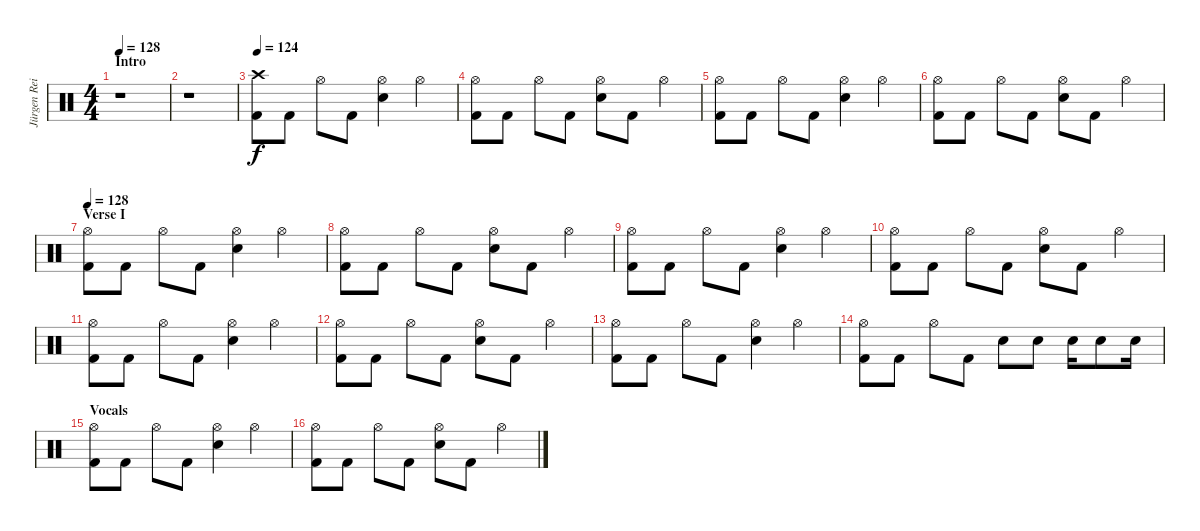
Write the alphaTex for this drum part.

\track ("Jürgen Reil [drums]" "Jürgen Rei") {instrument percussion}
\staff {score}
\articulation defaults
\ts (4 4)
\section ("" "Intro")
\tempo 128
\tempo 155
\tempo 128
\clef neutral
\ks c
r.1{dy f} |
r.1 |
\tempo 124
("Crash high (hit)" "Kick (hit) 2").8 "Kick (hit) 2".8 "Hi-Hat (open)".8 "Kick (hit) 2".8 ("Hi-Hat (open)" "Electric Snare (hit)").4 "Hi-Hat (open)".4 |
("Hi-Hat (open)" "Kick (hit) 2").8 "Kick (hit) 2".8 "Hi-Hat (open)".8 "Kick (hit) 2".8 ("Hi-Hat (open)" "Electric Snare (hit)").8 "Kick (hit) 2".8 "Hi-Hat (open)".4 |
("Hi-Hat (open)" "Kick (hit) 2").8 "Kick (hit) 2".8 "Hi-Hat (open)".8 "Kick (hit) 2".8 ("Hi-Hat (open)" "Electric Snare (hit)").4 "Hi-Hat (open)".4 |
("Hi-Hat (open)" "Kick (hit) 2").8 "Kick (hit) 2".8 "Hi-Hat (open)".8 "Kick (hit) 2".8 ("Hi-Hat (open)" "Electric Snare (hit)").8 "Kick (hit) 2".8 "Hi-Hat (open)".4 |
\section ("" "Verse I")
\tempo 128
("Hi-Hat (open)" "Kick (hit) 2").8 "Kick (hit) 2".8 "Hi-Hat (open)".8 "Kick (hit) 2".8 ("Hi-Hat (open)" "Electric Snare (hit)").4 "Hi-Hat (open)".4 |
("Hi-Hat (open)" "Kick (hit) 2").8 "Kick (hit) 2".8 "Hi-Hat (open)".8 "Kick (hit) 2".8 ("Hi-Hat (open)" "Electric Snare (hit)").8 "Kick (hit) 2".8 "Hi-Hat (open)".4 |
("Hi-Hat (open)" "Kick (hit) 2").8 "Kick (hit) 2".8 "Hi-Hat (open)".8 "Kick (hit) 2".8 ("Hi-Hat (open)" "Electric Snare (hit)").4 "Hi-Hat (open)".4 |
("Hi-Hat (open)" "Kick (hit) 2").8 "Kick (hit) 2".8 "Hi-Hat (open)".8 "Kick (hit) 2".8 ("Hi-Hat (open)" "Electric Snare (hit)").8 "Kick (hit) 2".8 "Hi-Hat (open)".4 |
("Hi-Hat (open)" "Kick (hit) 2").8 "Kick (hit) 2".8 "Hi-Hat (open)".8 "Kick (hit) 2".8 ("Hi-Hat (open)" "Electric Snare (hit)").4 "Hi-Hat (open)".4 |
("Hi-Hat (open)" "Kick (hit) 2").8 "Kick (hit) 2".8 "Hi-Hat (open)".8 "Kick (hit) 2".8 ("Hi-Hat (open)" "Electric Snare (hit)").8 "Kick (hit) 2".8 "Hi-Hat (open)".4 |
("Hi-Hat (open)" "Kick (hit) 2").8 "Kick (hit) 2".8 "Hi-Hat (open)".8 "Kick (hit) 2".8 ("Hi-Hat (open)" "Electric Snare (hit)").4 "Hi-Hat (open)".4 |
("Hi-Hat (open)" "Kick (hit) 2").8 "Kick (hit) 2".8 "Hi-Hat (open)".8 "Kick (hit) 2".8 "Electric Snare (hit)".8 "Electric Snare (hit)".8 "Electric Snare (hit)".16 "Electric Snare (hit)".8 "Electric Snare (hit)".16 |
\section ("" "Vocals ")
("Hi-Hat (open)" "Kick (hit) 2").8 "Kick (hit) 2".8 "Hi-Hat (open)".8 "Kick (hit) 2".8 ("Hi-Hat (open)" "Electric Snare (hit)").4 "Hi-Hat (open)".4 |
("Hi-Hat (open)" "Kick (hit) 2").8 "Kick (hit) 2".8 "Hi-Hat (open)".8 "Kick (hit) 2".8 ("Hi-Hat (open)" "Electric Snare (hit)").8 "Kick (hit) 2".8 "Hi-Hat (open)".4
